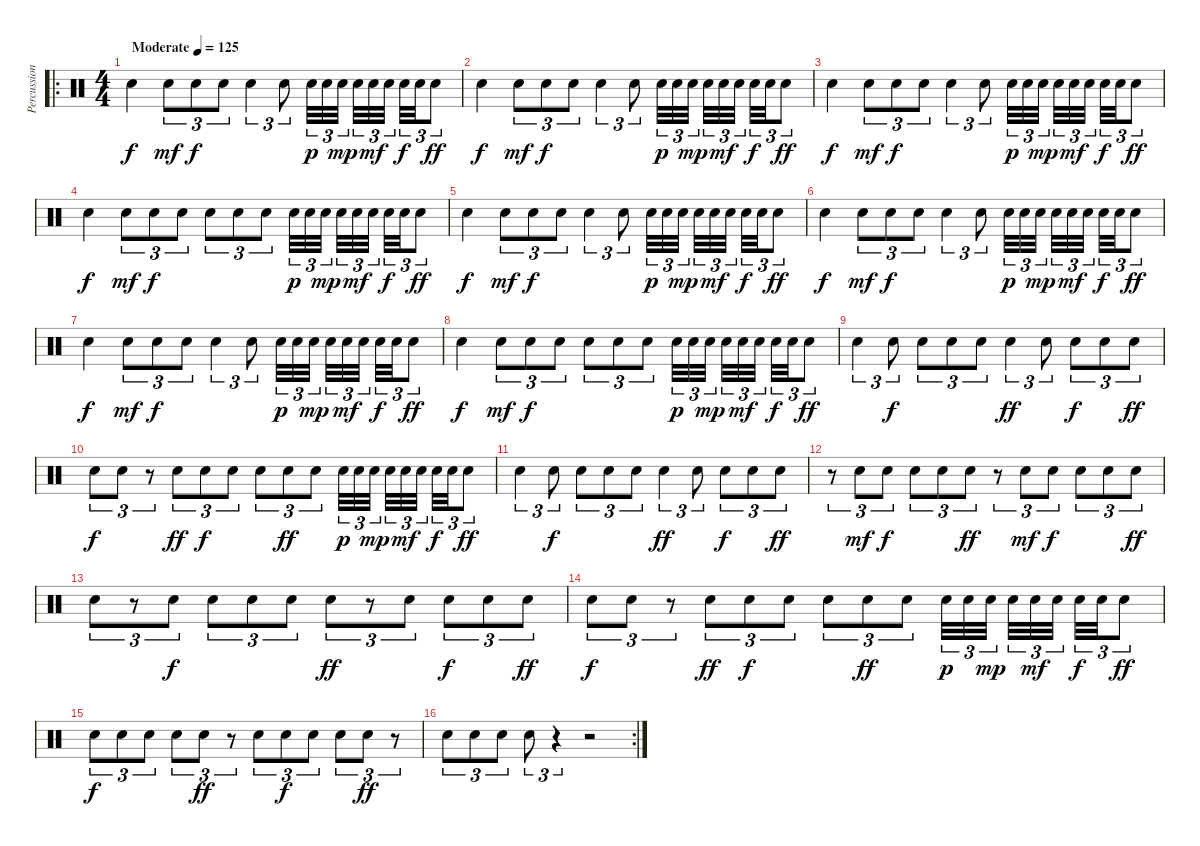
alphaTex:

\track ("Percussion" "Percussion") {instrument percussion}
\staff {score}
\articulation defaults
\ro
\ts (4 4)
\tempo (125 "Moderate")
\clef neutral
\ks c "Electric Snare (hit)".4{dy f} "Electric Snare (hit)".8{tu (3 2) dy mf} "Electric Snare (hit)".8{tu (3 2) dy f} "Electric Snare (hit)".8{tu (3 2)} "Electric Snare (hit)".4{tu (3 2)} "Electric Snare (hit)".8{tu (3 2)} "Electric Snare (hit)".32{tu (3 2) dy p} "Electric Snare (hit)".32{tu (3 2)} "Electric Snare (hit)".32{tu (3 2) dy mp beam splitsecondary} "Electric Snare (hit)".32{tu (3 2)} "Electric Snare (hit)".32{tu (3 2) dy mf} "Electric Snare (hit)".32{tu (3 2) beam splitsecondary} "Electric Snare (hit)".32{tu (3 2) dy f} "Electric Snare (hit)".32{tu (3 2)} "Electric Snare (hit)".8{tu (3 2) dy ff}
|
"Electric Snare (hit)".4{dy f} "Electric Snare (hit)".8{tu (3 2) dy mf} "Electric Snare (hit)".8{tu (3 2) dy f} "Electric Snare (hit)".8{tu (3 2)} "Electric Snare (hit)".4{tu (3 2)} "Electric Snare (hit)".8{tu (3 2)} "Electric Snare (hit)".32{tu (3 2) dy p} "Electric Snare (hit)".32{tu (3 2)} "Electric Snare (hit)".32{tu (3 2) dy mp beam splitsecondary} "Electric Snare (hit)".32{tu (3 2)} "Electric Snare (hit)".32{tu (3 2) dy mf} "Electric Snare (hit)".32{tu (3 2) beam splitsecondary} "Electric Snare (hit)".32{tu (3 2) dy f} "Electric Snare (hit)".32{tu (3 2)} "Electric Snare (hit)".8{tu (3 2) dy ff} |
"Electric Snare (hit)".4{dy f} "Electric Snare (hit)".8{tu (3 2) dy mf} "Electric Snare (hit)".8{tu (3 2) dy f} "Electric Snare (hit)".8{tu (3 2)} "Electric Snare (hit)".4{tu (3 2)} "Electric Snare (hit)".8{tu (3 2)} "Electric Snare (hit)".32{tu (3 2) dy p} "Electric Snare (hit)".32{tu (3 2)} "Electric Snare (hit)".32{tu (3 2) dy mp beam splitsecondary} "Electric Snare (hit)".32{tu (3 2)} "Electric Snare (hit)".32{tu (3 2) dy mf} "Electric Snare (hit)".32{tu (3 2) beam splitsecondary} "Electric Snare (hit)".32{tu (3 2) dy f} "Electric Snare (hit)".32{tu (3 2)} "Electric Snare (hit)".8{tu (3 2) dy ff} |
"Electric Snare (hit)".4{dy f} "Electric Snare (hit)".8{tu (3 2) dy mf} "Electric Snare (hit)".8{tu (3 2) dy f} "Electric Snare (hit)".8{tu (3 2)} "Electric Snare (hit)".8{tu (3 2)} "Electric Snare (hit)".8{tu (3 2)} "Electric Snare (hit)".8{tu (3 2)} "Electric Snare (hit)".32{tu (3 2) dy p} "Electric Snare (hit)".32{tu (3 2)} "Electric Snare (hit)".32{tu (3 2) dy mp beam splitsecondary} "Electric Snare (hit)".32{tu (3 2)} "Electric Snare (hit)".32{tu (3 2) dy mf} "Electric Snare (hit)".32{tu (3 2) beam splitsecondary} "Electric Snare (hit)".32{tu (3 2) dy f} "Electric Snare (hit)".32{tu (3 2)} "Electric Snare (hit)".8{tu (3 2) dy ff} |
"Electric Snare (hit)".4{dy f} "Electric Snare (hit)".8{tu (3 2) dy mf} "Electric Snare (hit)".8{tu (3 2) dy f} "Electric Snare (hit)".8{tu (3 2)} "Electric Snare (hit)".4{tu (3 2)} "Electric Snare (hit)".8{tu (3 2)} "Electric Snare (hit)".32{tu (3 2) dy p} "Electric Snare (hit)".32{tu (3 2)} "Electric Snare (hit)".32{tu (3 2) dy mp beam splitsecondary} "Electric Snare (hit)".32{tu (3 2)} "Electric Snare (hit)".32{tu (3 2) dy mf} "Electric Snare (hit)".32{tu (3 2) beam splitsecondary} "Electric Snare (hit)".32{tu (3 2) dy f} "Electric Snare (hit)".32{tu (3 2)} "Electric Snare (hit)".8{tu (3 2) dy ff} |
"Electric Snare (hit)".4{dy f} "Electric Snare (hit)".8{tu (3 2) dy mf} "Electric Snare (hit)".8{tu (3 2) dy f} "Electric Snare (hit)".8{tu (3 2)} "Electric Snare (hit)".4{tu (3 2)} "Electric Snare (hit)".8{tu (3 2)} "Electric Snare (hit)".32{tu (3 2) dy p} "Electric Snare (hit)".32{tu (3 2)} "Electric Snare (hit)".32{tu (3 2) dy mp beam splitsecondary} "Electric Snare (hit)".32{tu (3 2)} "Electric Snare (hit)".32{tu (3 2) dy mf} "Electric Snare (hit)".32{tu (3 2) beam splitsecondary} "Electric Snare (hit)".32{tu (3 2) dy f} "Electric Snare (hit)".32{tu (3 2)} "Electric Snare (hit)".8{tu (3 2) dy ff} |
"Electric Snare (hit)".4{dy f} "Electric Snare (hit)".8{tu (3 2) dy mf} "Electric Snare (hit)".8{tu (3 2) dy f} "Electric Snare (hit)".8{tu (3 2)} "Electric Snare (hit)".4{tu (3 2)} "Electric Snare (hit)".8{tu (3 2)} "Electric Snare (hit)".32{tu (3 2) dy p} "Electric Snare (hit)".32{tu (3 2)} "Electric Snare (hit)".32{tu (3 2) dy mp beam splitsecondary} "Electric Snare (hit)".32{tu (3 2)} "Electric Snare (hit)".32{tu (3 2) dy mf} "Electric Snare (hit)".32{tu (3 2) beam splitsecondary} "Electric Snare (hit)".32{tu (3 2) dy f} "Electric Snare (hit)".32{tu (3 2)} "Electric Snare (hit)".8{tu (3 2) dy ff} |
"Electric Snare (hit)".4{dy f} "Electric Snare (hit)".8{tu (3 2) dy mf} "Electric Snare (hit)".8{tu (3 2) dy f} "Electric Snare (hit)".8{tu (3 2)} "Electric Snare (hit)".8{tu (3 2)} "Electric Snare (hit)".8{tu (3 2)} "Electric Snare (hit)".8{tu (3 2)} "Electric Snare (hit)".32{tu (3 2) dy p} "Electric Snare (hit)".32{tu (3 2)} "Electric Snare (hit)".32{tu (3 2) dy mp beam splitsecondary} "Electric Snare (hit)".32{tu (3 2)} "Electric Snare (hit)".32{tu (3 2) dy mf} "Electric Snare (hit)".32{tu (3 2) beam splitsecondary} "Electric Snare (hit)".32{tu (3 2) dy f} "Electric Snare (hit)".32{tu (3 2)} "Electric Snare (hit)".8{tu (3 2) dy ff} |
"Electric Snare (hit)".4{tu (3 2)} "Electric Snare (hit)".8{tu (3 2) dy f} "Electric Snare (hit)".8{tu (3 2)} "Electric Snare (hit)".8{tu (3 2)} "Electric Snare (hit)".8{tu (3 2)} "Electric Snare (hit)".4{tu (3 2) dy ff} "Electric Snare (hit)".8{tu (3 2)} "Electric Snare (hit)".8{tu (3 2) dy f} "Electric Snare (hit)".8{tu (3 2)} "Electric Snare (hit)".8{tu (3 2) dy ff} |
"Electric Snare (hit)".8{tu (3 2) dy f} "Electric Snare (hit)".8{tu (3 2)} r.8{tu (3 2)} "Electric Snare (hit)".8{tu (3 2) dy ff} "Electric Snare (hit)".8{tu (3 2) dy f} "Electric Snare (hit)".8{tu (3 2)} "Electric Snare (hit)".8{tu (3 2)} "Electric Snare (hit)".8{tu (3 2) dy ff} "Electric Snare (hit)".8{tu (3 2)} "Electric Snare (hit)".32{tu (3 2) dy p} "Electric Snare (hit)".32{tu (3 2)} "Electric Snare (hit)".32{tu (3 2) dy mp beam splitsecondary} "Electric Snare (hit)".32{tu (3 2)} "Electric Snare (hit)".32{tu (3 2) dy mf} "Electric Snare (hit)".32{tu (3 2) beam splitsecondary} "Electric Snare (hit)".32{tu (3 2) dy f} "Electric Snare (hit)".32{tu (3 2)} "Electric Snare (hit)".8{tu (3 2) dy ff} |
"Electric Snare (hit)".4{tu (3 2)} "Electric Snare (hit)".8{tu (3 2) dy f} "Electric Snare (hit)".8{tu (3 2)} "Electric Snare (hit)".8{tu (3 2)} "Electric Snare (hit)".8{tu (3 2)} "Electric Snare (hit)".4{tu (3 2) dy ff} "Electric Snare (hit)".8{tu (3 2)} "Electric Snare (hit)".8{tu (3 2) dy f} "Electric Snare (hit)".8{tu (3 2)} "Electric Snare (hit)".8{tu (3 2) dy ff} |
r.8{tu (3 2)} "Electric Snare (hit)".8{tu (3 2) dy mf} "Electric Snare (hit)".8{tu (3 2) dy f} "Electric Snare (hit)".8{tu (3 2)} "Electric Snare (hit)".8{tu (3 2)} "Electric Snare (hit)".8{tu (3 2) dy ff} r.8{tu (3 2)} "Electric Snare (hit)".8{tu (3 2) dy mf} "Electric Snare (hit)".8{tu (3 2) dy f} "Electric Snare (hit)".8{tu (3 2)} "Electric Snare (hit)".8{tu (3 2)} "Electric Snare (hit)".8{tu (3 2) dy ff} |
"Electric Snare (hit)".8{tu (3 2)} r.8{tu (3 2)} "Electric Snare (hit)".8{tu (3 2) dy f} "Electric Snare (hit)".8{tu (3 2)} "Electric Snare (hit)".8{tu (3 2)} "Electric Snare (hit)".8{tu (3 2)} "Electric Snare (hit)".8{tu (3 2) dy ff} r.8{tu (3 2)} "Electric Snare (hit)".8{tu (3 2)} "Electric Snare (hit)".8{tu (3 2) dy f} "Electric Snare (hit)".8{tu (3 2)} "Electric Snare (hit)".8{tu (3 2) dy ff} |
"Electric Snare (hit)".8{tu (3 2) dy f} "Electric Snare (hit)".8{tu (3 2)} r.8{tu (3 2)} "Electric Snare (hit)".8{tu (3 2) dy ff} "Electric Snare (hit)".8{tu (3 2) dy f} "Electric Snare (hit)".8{tu (3 2)} "Electric Snare (hit)".8{tu (3 2)} "Electric Snare (hit)".8{tu (3 2) dy ff} "Electric Snare (hit)".8{tu (3 2)} "Electric Snare (hit)".32{tu (3 2) dy p} "Electric Snare (hit)".32{tu (3 2)} "Electric Snare (hit)".32{tu (3 2) dy mp beam splitsecondary} "Electric Snare (hit)".32{tu (3 2)} "Electric Snare (hit)".32{tu (3 2) dy mf} "Electric Snare (hit)".32{tu (3 2) beam splitsecondary} "Electric Snare (hit)".32{tu (3 2) dy f} "Electric Snare (hit)".32{tu (3 2)} "Electric Snare (hit)".8{tu (3 2) dy ff} |
"Electric Snare (hit)".8{tu (3 2) dy f} "Electric Snare (hit)".8{tu (3 2)} "Electric Snare (hit)".8{tu (3 2)} "Electric Snare (hit)".8{tu (3 2)} "Electric Snare (hit)".8{tu (3 2) dy ff} r.8{tu (3 2)} "Electric Snare (hit)".8{tu (3 2)} "Electric Snare (hit)".8{tu (3 2) dy f} "Electric Snare (hit)".8{tu (3 2)} "Electric Snare (hit)".8{tu (3 2)} "Electric Snare (hit)".8{tu (3 2) dy ff} r.8{tu (3 2)} |
\rc 2 "Electric Snare (hit)".8{tu (3 2)} "Electric Snare (hit)".8{tu (3 2)} "Electric Snare (hit)".8{tu (3 2)} "Electric Snare (hit)".8{tu (3 2)}
r.4{tu (3 2)} r.2
